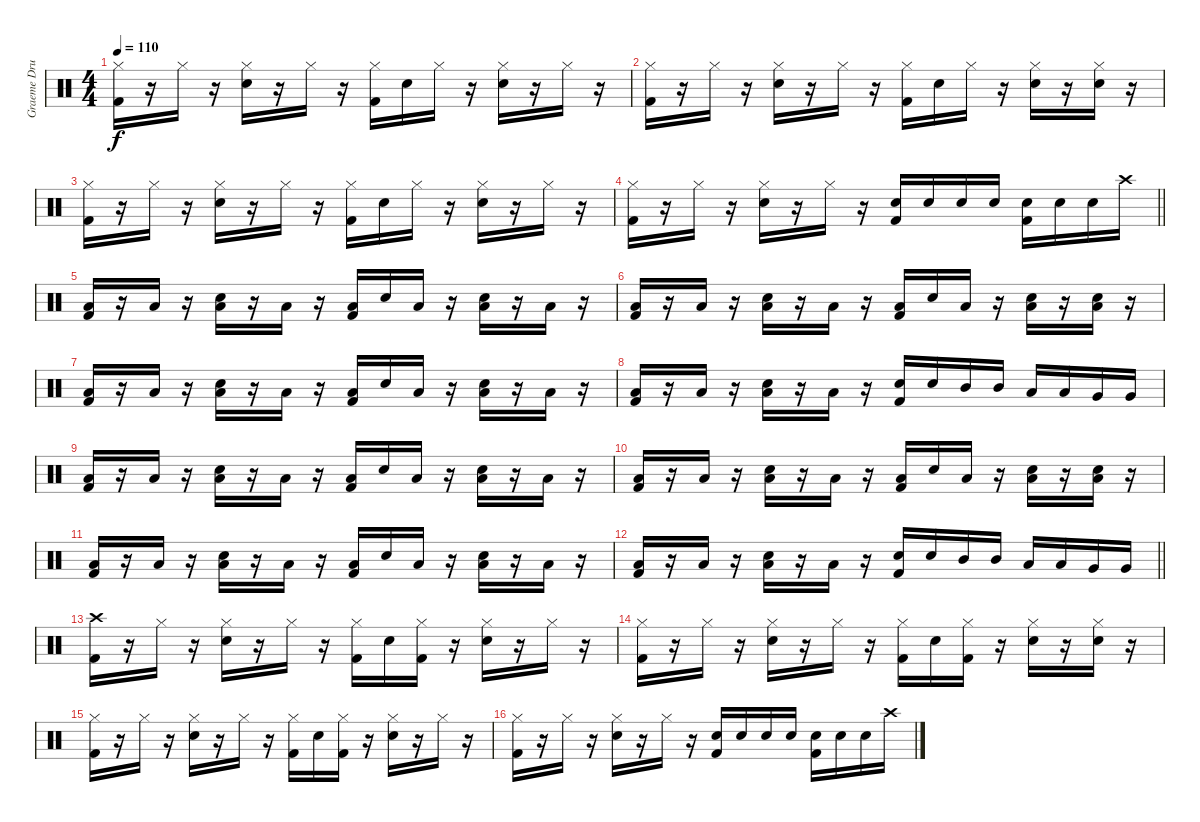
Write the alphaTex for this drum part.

\track ("Graeme Drums" "Graeme Dru") {instrument percussion}
\staff {score}
\articulation defaults
\ts (4 4)
\tempo 110
\clef neutral
\ks c
("Kick (hit) 2" "Hi-Hat (closed)").16{dy f} r.16 "Hi-Hat (closed)".16 r.16 ("Hi-Hat (closed)" "Snare (hit) 2").16 r.16 "Hi-Hat (closed)".16 r.16 ("Kick (hit) 2" "Hi-Hat (closed)").16 "Snare (hit) 2".16 "Hi-Hat (closed)".16 r.16 ("Hi-Hat (closed)" "Snare (hit) 2").16 r.16 "Hi-Hat (closed)".16 r.16 |
("Kick (hit) 2" "Hi-Hat (closed)").16 r.16 "Hi-Hat (closed)".16 r.16 ("Hi-Hat (closed)" "Snare (hit) 2").16 r.16 "Hi-Hat (closed)".16 r.16 ("Kick (hit) 2" "Hi-Hat (closed)").16 "Snare (hit) 2".16 "Hi-Hat (closed)".16 r.16 ("Hi-Hat (closed)" "Snare (hit) 2").16 r.16 ("Hi-Hat (closed)" "Snare (hit) 2").16 r.16 |
("Kick (hit) 2" "Hi-Hat (closed)").16 r.16 "Hi-Hat (closed)".16 r.16 ("Hi-Hat (closed)" "Snare (hit) 2").16 r.16 "Hi-Hat (closed)".16 r.16 ("Kick (hit) 2" "Hi-Hat (closed)").16 "Snare (hit) 2".16 "Hi-Hat (closed)".16 r.16 ("Hi-Hat (closed)" "Snare (hit) 2").16 r.16 "Hi-Hat (closed)".16 r.16 |
\barLineRight lightlight
("Kick (hit) 2" "Hi-Hat (closed)").16 r.16 "Hi-Hat (closed)".16 r.16 ("Hi-Hat (closed)" "Snare (hit) 2").16 r.16 "Hi-Hat (closed)".16 r.16 ("Kick (hit) 2" "Snare (hit) 2").16 "Snare (hit) 2".16 "Snare (hit) 2".16 "Snare (hit) 2".16 ("Kick (hit) 2" "Snare (hit) 2").16 "Snare (hit) 2".16 "Snare (hit) 2".16 "Crash high (hit)".16 |
("Kick (hit) 2" "Low Tom (hit)").16 r.16 "Low Tom (hit)".16 r.16 ("Low Tom (hit)" "Snare (hit) 2").16 r.16 "Low Tom (hit)".16 r.16 ("Kick (hit) 2" "Low Tom (hit)").16 "Snare (hit) 2".16 "Low Tom (hit)".16 r.16 ("Low Tom (hit)" "Snare (hit) 2").16 r.16 "Low Tom (hit)".16 r.16 |
("Kick (hit) 2" "Low Tom (hit)").16 r.16 "Low Tom (hit)".16 r.16 ("Low Tom (hit)" "Snare (hit) 2").16 r.16 "Low Tom (hit)".16 r.16 ("Kick (hit) 2" "Low Tom (hit)").16 "Snare (hit) 2".16 "Low Tom (hit)".16 r.16 ("Low Tom (hit)" "Snare (hit) 2").16 r.16 ("Low Tom (hit)" "Snare (hit) 2").16 r.16 |
("Kick (hit) 2" "Low Tom (hit)").16 r.16 "Low Tom (hit)".16 r.16 ("Low Tom (hit)" "Snare (hit) 2").16 r.16 "Low Tom (hit)".16 r.16 ("Kick (hit) 2" "Low Tom (hit)").16 "Snare (hit) 2".16 "Low Tom (hit)".16 r.16 ("Low Tom (hit)" "Snare (hit) 2").16 r.16 "Low Tom (hit)".16 r.16 |
("Kick (hit) 2" "Low Tom (hit)").16 r.16 "Low Tom (hit)".16 r.16 ("Low Tom (hit)" "Snare (hit) 2").16 r.16 "Low Tom (hit)".16 r.16 ("Kick (hit) 2" "Snare (hit) 2").16 "Snare (hit) 2".16 "Mid Tom (hit)".16 "Mid Tom (hit)".16 "Low Tom (hit)".16 "Low Tom (hit)".16 "Very Low Tom (hit)".16 "Very Low Tom (hit)".16 |
("Kick (hit) 2" "Low Tom (hit)").16 r.16 "Low Tom (hit)".16 r.16 ("Low Tom (hit)" "Snare (hit) 2").16 r.16 "Low Tom (hit)".16 r.16 ("Kick (hit) 2" "Low Tom (hit)").16 "Snare (hit) 2".16 "Low Tom (hit)".16 r.16 ("Low Tom (hit)" "Snare (hit) 2").16 r.16 "Low Tom (hit)".16 r.16 |
("Kick (hit) 2" "Low Tom (hit)").16 r.16 "Low Tom (hit)".16 r.16 ("Low Tom (hit)" "Snare (hit) 2").16 r.16 "Low Tom (hit)".16 r.16 ("Kick (hit) 2" "Low Tom (hit)").16 "Snare (hit) 2".16 "Low Tom (hit)".16 r.16 ("Low Tom (hit)" "Snare (hit) 2").16 r.16 ("Low Tom (hit)" "Snare (hit) 2").16 r.16 |
("Kick (hit) 2" "Low Tom (hit)").16 r.16 "Low Tom (hit)".16 r.16 ("Low Tom (hit)" "Snare (hit) 2").16 r.16 "Low Tom (hit)".16 r.16 ("Kick (hit) 2" "Low Tom (hit)").16 "Snare (hit) 2".16 "Low Tom (hit)".16 r.16 ("Low Tom (hit)" "Snare (hit) 2").16 r.16 "Low Tom (hit)".16 r.16 |
\barLineRight lightlight
("Kick (hit) 2" "Low Tom (hit)").16 r.16 "Low Tom (hit)".16 r.16 ("Low Tom (hit)" "Snare (hit) 2").16 r.16 "Low Tom (hit)".16 r.16 ("Kick (hit) 2" "Snare (hit) 2").16 "Snare (hit) 2".16 "Mid Tom (hit)".16 "Mid Tom (hit)".16 "Low Tom (hit)".16 "Low Tom (hit)".16 "Very Low Tom (hit)".16 "Very Low Tom (hit)".16 |
("Kick (hit) 2" "Crash high (hit)").16 r.16 "Hi-Hat (closed)".16 r.16 ("Hi-Hat (closed)" "Snare (hit) 2").16 r.16 "Hi-Hat (closed)".16 r.16 ("Kick (hit) 2" "Hi-Hat (closed)").16 "Snare (hit) 2".16 ("Kick (hit) 2" "Hi-Hat (closed)").16 r.16 ("Hi-Hat (closed)" "Snare (hit) 2").16 r.16 "Hi-Hat (closed)".16 r.16 |
("Kick (hit) 2" "Hi-Hat (closed)").16 r.16 "Hi-Hat (closed)".16 r.16 ("Hi-Hat (closed)" "Snare (hit) 2").16 r.16 "Hi-Hat (closed)".16 r.16 ("Kick (hit) 2" "Hi-Hat (closed)").16 "Snare (hit) 2".16 ("Kick (hit) 2" "Hi-Hat (closed)").16 r.16 ("Hi-Hat (closed)" "Snare (hit) 2").16 r.16 ("Hi-Hat (closed)" "Snare (hit) 2").16 r.16 |
("Kick (hit) 2" "Hi-Hat (closed)").16 r.16 "Hi-Hat (closed)".16 r.16 ("Hi-Hat (closed)" "Snare (hit) 2").16 r.16 "Hi-Hat (closed)".16 r.16 ("Kick (hit) 2" "Hi-Hat (closed)").16 "Snare (hit) 2".16 ("Kick (hit) 2" "Hi-Hat (closed)").16 r.16 ("Hi-Hat (closed)" "Snare (hit) 2").16 r.16 "Hi-Hat (closed)".16 r.16 |
("Kick (hit) 2" "Hi-Hat (closed)").16 r.16 "Hi-Hat (closed)".16 r.16 ("Hi-Hat (closed)" "Snare (hit) 2").16 r.16 "Hi-Hat (closed)".16 r.16 ("Kick (hit) 2" "Snare (hit) 2").16 "Snare (hit) 2".16 "Snare (hit) 2".16 "Snare (hit) 2".16 ("Kick (hit) 2" "Snare (hit) 2").16 "Snare (hit) 2".16 "Snare (hit) 2".16 "Crash high (hit)".16
